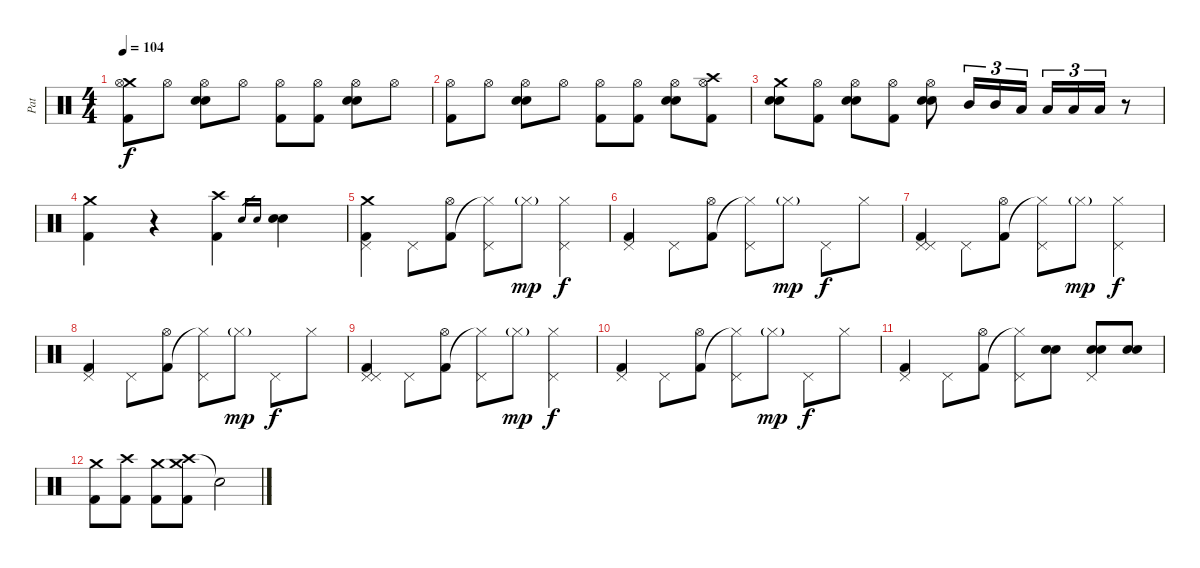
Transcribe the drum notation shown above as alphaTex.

\track ("Pat" "Pat") {instrument percussion}
\staff {score}
\articulation defaults
\ts (4 4)
\tempo 104
\clef neutral
\ks c
("Crash medium (hit)" "Hi-Hat (open)" "Kick (hit) 2").8{dy f} "Hi-Hat (open)".8 ("Hi-Hat (open)" "Electric Snare (hit)" "Snare (hit) 2").8 "Hi-Hat (open)".8 ("Hi-Hat (open)" "Kick (hit) 2").8 ("Hi-Hat (open)" "Kick (hit) 2").8 ("Hi-Hat (open)" "Electric Snare (hit)" "Snare (hit) 2").8 "Hi-Hat (open)".8 |
("Hi-Hat (open)" "Kick (hit) 2").8 "Hi-Hat (open)".8 ("Hi-Hat (open)" "Electric Snare (hit)" "Snare (hit) 2").8 "Hi-Hat (open)".8 ("Hi-Hat (open)" "Kick (hit) 2").8 ("Hi-Hat (open)" "Kick (hit) 2").8 ("Hi-Hat (open)" "Electric Snare (hit)" "Snare (hit) 2").8 ("Crash high (hit)" "Hi-Hat (open)" "Kick (hit) 2").8 |
("Crash medium (hit)" "Electric Snare (hit)" "Snare (hit) 2").8 ("Hi-Hat (open)" "Kick (hit) 2").8 ("Hi-Hat (open)" "Electric Snare (hit)" "Snare (hit) 2").8 ("Hi-Hat (open)" "Kick (hit) 2").8 ("Hi-Hat (open)" "Electric Snare (hit)" "Snare (hit) 2").8 "Mid Tom (hit)".16{tu (3 2)} "Mid Tom (hit)".16{tu (3 2)} "Low Tom (hit)".16{tu (3 2)} "Low Tom (hit)".16{tu (3 2)} "Low Floor Tom (hit)".16{tu (3 2)} "Low Floor Tom (hit)".16{tu (3 2)} r.8 |
("Crash medium (hit)" "Kick (hit) 2").4 r.4 ("Crash high (hit)" "Kick (hit) 2").4 "Electric Snare (hit)".16{gr} "Snare (hit) 2".16{gr} ("Electric Snare (hit)" "Snare (hit) 2").4 |
("Crash medium (hit)" "Pedal Hi-Hat (hit)" "Kick (hit) 2").4 "Pedal Hi-Hat (hit)".8 ("Hi-Hat (open)" "Kick (hit) 2").8 ("Pedal Hi-Hat (hit)" "Hi-Hat (closed)"{t}).8 "Hi-Hat (closed)"{g}.8{dy mp} ("Pedal Hi-Hat (hit)" "Hi-Hat (closed)").4{dy f} |
("Pedal Hi-Hat (hit)" "Kick (hit) 2").4 "Pedal Hi-Hat (hit)".8 ("Hi-Hat (open)" "Kick (hit) 2").8 ("Pedal Hi-Hat (hit)" "Hi-Hat (closed)"{t}).8 "Hi-Hat (closed)"{g}.8{dy mp} "Pedal Hi-Hat (hit)".8{dy f} "Hi-Hat (closed)".8 |
("Pedal Hi-Hat (hit)" "Pedal Hi-Hat (hit)" "Kick (hit) 2").4 "Pedal Hi-Hat (hit)".8 ("Hi-Hat (open)" "Kick (hit) 2").8 ("Pedal Hi-Hat (hit)" "Hi-Hat (closed)"{t}).8 "Hi-Hat (closed)"{g}.8{dy mp} ("Pedal Hi-Hat (hit)" "Hi-Hat (closed)").4{dy f} |
("Pedal Hi-Hat (hit)" "Kick (hit) 2").4 "Pedal Hi-Hat (hit)".8 ("Hi-Hat (open)" "Kick (hit) 2").8 ("Pedal Hi-Hat (hit)" "Hi-Hat (closed)"{t}).8 "Hi-Hat (closed)"{g}.8{dy mp} "Pedal Hi-Hat (hit)".8{dy f} "Hi-Hat (closed)".8 |
("Pedal Hi-Hat (hit)" "Pedal Hi-Hat (hit)" "Kick (hit) 2").4 "Pedal Hi-Hat (hit)".8 ("Hi-Hat (open)" "Kick (hit) 2").8 ("Pedal Hi-Hat (hit)" "Hi-Hat (closed)"{t}).8 "Hi-Hat (closed)"{g}.8{dy mp} ("Pedal Hi-Hat (hit)" "Hi-Hat (closed)").4{dy f} |
("Pedal Hi-Hat (hit)" "Kick (hit) 2").4 "Pedal Hi-Hat (hit)".8 ("Hi-Hat (open)" "Kick (hit) 2").8 ("Pedal Hi-Hat (hit)" "Hi-Hat (closed)"{t}).8 "Hi-Hat (closed)"{g}.8{dy mp} "Pedal Hi-Hat (hit)".8{dy f} "Hi-Hat (closed)".8 |
("Pedal Hi-Hat (hit)" "Kick (hit) 2").4 "Pedal Hi-Hat (hit)".8 ("Hi-Hat (open)" "Kick (hit) 2").8 ("Pedal Hi-Hat (hit)" "Hi-Hat (closed)"{t}).8 ("Snare (hit) 2" "Electric Snare (hit)").8 ("Pedal Hi-Hat (hit)" "Snare (hit) 2" "Electric Snare (hit)").8 ("Snare (hit) 2" "Electric Snare (hit)").8 |
("Crash medium (hit)" "Kick (hit) 2").8 ("Crash high (hit)" "Kick (hit) 2").8 ("Crash medium (hit)" "Kick (hit) 2").8 ("Crash high (hit)" "Crash medium (hit)" "Kick (hit) 2").8 "Snare (hit)"{t}.2
